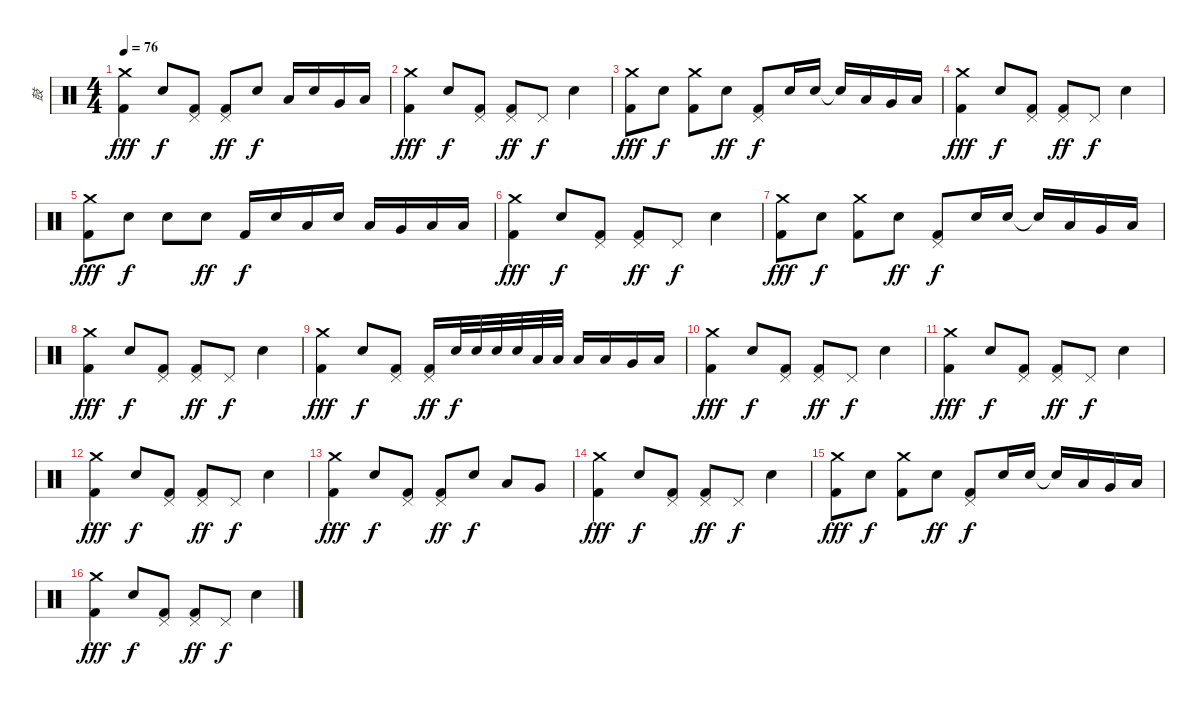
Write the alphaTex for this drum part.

\track ("鼓" "鼓") {instrument percussion}
\staff {score}
\articulation defaults
\ts (4 4)
\tempo 76
\clef neutral
\ks c
("Kick (hit) 2" "Crash medium (hit)").4{dy fff} "Electric Snare (hit)".8{dy f} ("Kick (hit) 2" "Pedal Hi-Hat (hit)").8 ("Kick (hit) 2" "Pedal Hi-Hat (hit)").8{dy ff} "Electric Snare (hit)".8{dy f} "Low Tom (hit)".16 "Electric Snare (hit)".16 "Very Low Tom (hit)".16 "Low Floor Tom (hit)".16 |
("Kick (hit) 2" "Crash medium (hit)").4{dy fff} "Electric Snare (hit)".8{dy f} ("Kick (hit) 2" "Pedal Hi-Hat (hit)").8 ("Kick (hit) 2" "Pedal Hi-Hat (hit)").8{dy ff} "Pedal Hi-Hat (hit)".8{dy f} "Electric Snare (hit)".4 |
("Kick (hit) 2" "Crash medium (hit)").8{dy fff} "Electric Snare (hit)".8{dy f} ("Kick (hit) 2" "Crash medium (hit)").8 "Electric Snare (hit)".8{dy ff} ("Kick (hit) 2" "Pedal Hi-Hat (hit)").8{dy f} "Electric Snare (hit)".16 "Electric Snare (hit)".16 "Snare (hit)"{t}.16 "Low Tom (hit)".16 "Very Low Tom (hit)".16 "Low Floor Tom (hit)".16 |
("Kick (hit) 2" "Crash medium (hit)").4{dy fff} "Electric Snare (hit)".8{dy f} ("Kick (hit) 2" "Pedal Hi-Hat (hit)").8 ("Kick (hit) 2" "Pedal Hi-Hat (hit)").8{dy ff} "Pedal Hi-Hat (hit)".8{dy f} "Electric Snare (hit)".4 |
("Kick (hit) 2" "Crash medium (hit)").8{dy fff} "Electric Snare (hit)".8{dy f} "Electric Snare (hit)".8 "Electric Snare (hit)".8{dy ff} "Kick (hit) 2".16{dy f} "Electric Snare (hit)".16 "Low Tom (hit)".16 "Electric Snare (hit)".16 "Low Tom (hit)".16 "Very Low Tom (hit)".16 "Low Floor Tom (hit)".16 "Low Tom (hit)".16 |
("Kick (hit) 2" "Crash medium (hit)").4{dy fff} "Electric Snare (hit)".8{dy f} ("Kick (hit) 2" "Pedal Hi-Hat (hit)").8 ("Kick (hit) 2" "Pedal Hi-Hat (hit)").8{dy ff} "Pedal Hi-Hat (hit)".8{dy f} "Electric Snare (hit)".4 |
("Kick (hit) 2" "Crash medium (hit)").8{dy fff} "Electric Snare (hit)".8{dy f} ("Kick (hit) 2" "Crash medium (hit)").8 "Electric Snare (hit)".8{dy ff} ("Kick (hit) 2" "Pedal Hi-Hat (hit)").8{dy f} "Electric Snare (hit)".16 "Electric Snare (hit)".16 "Snare (hit)"{t}.16 "Low Tom (hit)".16 "Very Low Tom (hit)".16 "Low Floor Tom (hit)".16 |
("Kick (hit) 2" "Crash medium (hit)").4{dy fff} "Electric Snare (hit)".8{dy f} ("Kick (hit) 2" "Pedal Hi-Hat (hit)").8 ("Kick (hit) 2" "Pedal Hi-Hat (hit)").8{dy ff} "Pedal Hi-Hat (hit)".8{dy f} "Electric Snare (hit)".4 |
("Kick (hit) 2" "Crash medium (hit)").4{dy fff} "Electric Snare (hit)".8{dy f} ("Kick (hit) 2" "Pedal Hi-Hat (hit)").8 ("Kick (hit) 2" "Pedal Hi-Hat (hit)").16{dy ff} "Electric Snare (hit)".32{dy f} "Electric Snare (hit)".32 "Electric Snare (hit)".32 "Electric Snare (hit)".32 "Low Tom (hit)".32 "Low Tom (hit)".32 "Low Tom (hit)".16 "Low Tom (hit)".16 "Very Low Tom (hit)".16 "Low Floor Tom (hit)".16 |
("Kick (hit) 2" "Crash medium (hit)").4{dy fff} "Electric Snare (hit)".8{dy f} ("Kick (hit) 2" "Pedal Hi-Hat (hit)").8 ("Kick (hit) 2" "Pedal Hi-Hat (hit)").8{dy ff} "Pedal Hi-Hat (hit)".8{dy f} "Electric Snare (hit)".4 |
("Kick (hit) 2" "Crash medium (hit)").4{dy fff} "Electric Snare (hit)".8{dy f} ("Kick (hit) 2" "Pedal Hi-Hat (hit)").8 ("Kick (hit) 2" "Pedal Hi-Hat (hit)").8{dy ff} "Pedal Hi-Hat (hit)".8{dy f} "Electric Snare (hit)".4 |
("Kick (hit) 2" "Crash medium (hit)").4{dy fff} "Electric Snare (hit)".8{dy f} ("Kick (hit) 2" "Pedal Hi-Hat (hit)").8 ("Kick (hit) 2" "Pedal Hi-Hat (hit)").8{dy ff} "Pedal Hi-Hat (hit)".8{dy f} "Electric Snare (hit)".4 |
("Kick (hit) 2" "Crash medium (hit)").4{dy fff} "Electric Snare (hit)".8{dy f} ("Kick (hit) 2" "Pedal Hi-Hat (hit)").8 ("Kick (hit) 2" "Pedal Hi-Hat (hit)").8{dy ff} "Electric Snare (hit)".8{dy f} "Low Tom (hit)".8 "Very Low Tom (hit)".8 |
("Kick (hit) 2" "Crash medium (hit)").4{dy fff} "Electric Snare (hit)".8{dy f} ("Kick (hit) 2" "Pedal Hi-Hat (hit)").8 ("Kick (hit) 2" "Pedal Hi-Hat (hit)").8{dy ff} "Pedal Hi-Hat (hit)".8{dy f} "Electric Snare (hit)".4 |
("Kick (hit) 2" "Crash medium (hit)").8{dy fff} "Electric Snare (hit)".8{dy f} ("Kick (hit) 2" "Crash medium (hit)").8 "Electric Snare (hit)".8{dy ff} ("Kick (hit) 2" "Pedal Hi-Hat (hit)").8{dy f} "Electric Snare (hit)".16 "Electric Snare (hit)".16 "Snare (hit)"{t}.16 "Low Tom (hit)".16 "Very Low Tom (hit)".16 "Low Floor Tom (hit)".16 |
("Kick (hit) 2" "Crash medium (hit)").4{dy fff} "Electric Snare (hit)".8{dy f} ("Kick (hit) 2" "Pedal Hi-Hat (hit)").8 ("Kick (hit) 2" "Pedal Hi-Hat (hit)").8{dy ff} "Pedal Hi-Hat (hit)".8{dy f} "Electric Snare (hit)".4
